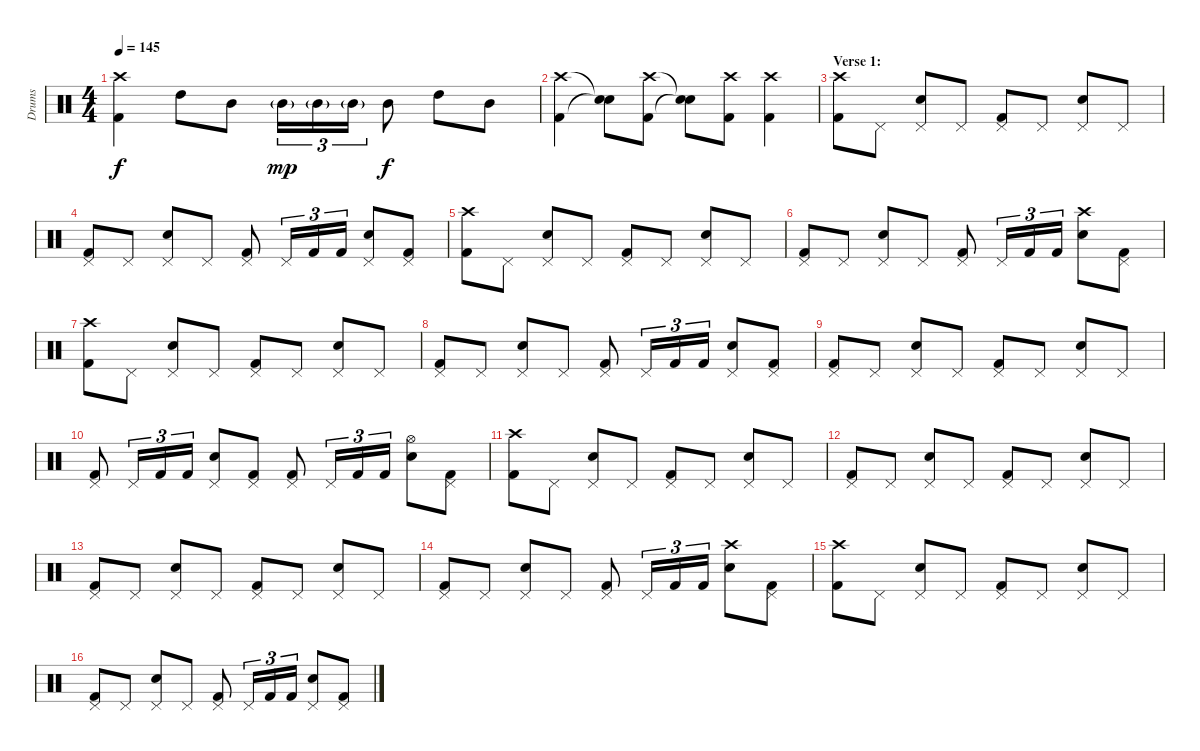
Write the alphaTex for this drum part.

\track ("Drums" "Drums") {instrument percussion}
\staff {score}
\articulation defaults
\ts (4 4)
\tempo 145
\clef neutral
\ks c
("Crash high (hit)" "Kick (hit) 2").4{dy f} "High Tom (hit)".8 "Mid Tom (hit)".8 "Mid Tom (hit)"{g}.16{tu (3 2) dy mp} "Mid Tom (hit)"{g}.16{tu (3 2)} "Mid Tom (hit)"{g}.16{tu (3 2)} "Mid Tom (hit)".8{dy f} "High Tom (hit)".8 "Mid Tom (hit)".8 |
("Crash high (hit)" "Kick (hit) 2").4 ("Snare (hit)"{t} "Snare (hit)"{t}).8 ("Crash high (hit)" "Kick (hit) 2").8 ("Snare (hit)"{t} "Snare (hit)"{t}).8 ("Crash high (hit)" "Kick (hit) 2").8 ("Crash high (hit)" "Kick (hit) 2").4 |
\section ("" "Verse 1:")
("Crash high (hit)" "Kick (hit) 2").8 "Pedal Hi-Hat (hit)".8 ("Pedal Hi-Hat (hit)" "Electric Snare (hit)").8 "Pedal Hi-Hat (hit)".8 ("Pedal Hi-Hat (hit)" "Kick (hit) 2").8 "Pedal Hi-Hat (hit)".8 ("Pedal Hi-Hat (hit)" "Electric Snare (hit)").8 "Pedal Hi-Hat (hit)".8 |
("Pedal Hi-Hat (hit)" "Kick (hit) 2").8 "Pedal Hi-Hat (hit)".8 ("Pedal Hi-Hat (hit)" "Electric Snare (hit)").8 "Pedal Hi-Hat (hit)".8 ("Pedal Hi-Hat (hit)" "Kick (hit) 2").8 "Pedal Hi-Hat (hit)".16{tu (3 2)} "Kick (hit) 2".16{tu (3 2)} "Kick (hit) 2".16{tu (3 2)} ("Pedal Hi-Hat (hit)" "Electric Snare (hit)").8 ("Pedal Hi-Hat (hit)" "Kick (hit) 2").8 |
("Crash high (hit)" "Kick (hit) 2").8 "Pedal Hi-Hat (hit)".8 ("Pedal Hi-Hat (hit)" "Electric Snare (hit)").8 "Pedal Hi-Hat (hit)".8 ("Pedal Hi-Hat (hit)" "Kick (hit) 2").8 "Pedal Hi-Hat (hit)".8 ("Pedal Hi-Hat (hit)" "Electric Snare (hit)").8 "Pedal Hi-Hat (hit)".8 |
("Pedal Hi-Hat (hit)" "Kick (hit) 2").8 "Pedal Hi-Hat (hit)".8 ("Pedal Hi-Hat (hit)" "Electric Snare (hit)").8 "Pedal Hi-Hat (hit)".8 ("Pedal Hi-Hat (hit)" "Kick (hit) 2").8 "Pedal Hi-Hat (hit)".16{tu (3 2)} "Kick (hit) 2".16{tu (3 2)} "Kick (hit) 2".16{tu (3 2)} ("Crash high (hit)" "Electric Snare (hit)").8 ("Pedal Hi-Hat (hit)" "Kick (hit) 2").8 |
("Crash high (hit)" "Kick (hit) 2").8 "Pedal Hi-Hat (hit)".8 ("Pedal Hi-Hat (hit)" "Electric Snare (hit)").8 "Pedal Hi-Hat (hit)".8 ("Pedal Hi-Hat (hit)" "Kick (hit) 2").8 "Pedal Hi-Hat (hit)".8 ("Pedal Hi-Hat (hit)" "Electric Snare (hit)").8 "Pedal Hi-Hat (hit)".8 |
("Pedal Hi-Hat (hit)" "Kick (hit) 2").8 "Pedal Hi-Hat (hit)".8 ("Pedal Hi-Hat (hit)" "Electric Snare (hit)").8 "Pedal Hi-Hat (hit)".8 ("Pedal Hi-Hat (hit)" "Kick (hit) 2").8 "Pedal Hi-Hat (hit)".16{tu (3 2)} "Kick (hit) 2".16{tu (3 2)} "Kick (hit) 2".16{tu (3 2)} ("Pedal Hi-Hat (hit)" "Electric Snare (hit)").8 ("Pedal Hi-Hat (hit)" "Kick (hit) 2").8 |
("Pedal Hi-Hat (hit)" "Kick (hit) 2").8 "Pedal Hi-Hat (hit)".8 ("Pedal Hi-Hat (hit)" "Electric Snare (hit)").8 "Pedal Hi-Hat (hit)".8 ("Pedal Hi-Hat (hit)" "Kick (hit) 2").8 "Pedal Hi-Hat (hit)".8 ("Pedal Hi-Hat (hit)" "Electric Snare (hit)").8 "Pedal Hi-Hat (hit)".8 |
("Pedal Hi-Hat (hit)" "Kick (hit) 2").8 "Pedal Hi-Hat (hit)".16{tu (3 2)} "Kick (hit) 2".16{tu (3 2)} "Kick (hit) 2".16{tu (3 2)} ("Pedal Hi-Hat (hit)" "Electric Snare (hit)").8 ("Pedal Hi-Hat (hit)" "Kick (hit) 2").8 ("Pedal Hi-Hat (hit)" "Kick (hit) 2").8 "Pedal Hi-Hat (hit)".16{tu (3 2)} "Kick (hit) 2".16{tu (3 2)} "Kick (hit) 2".16{tu (3 2)} ("Hi-Hat (open)" "Electric Snare (hit)").8 ("Pedal Hi-Hat (hit)" "Kick (hit) 2").8 |
("Crash high (hit)" "Kick (hit) 2").8 "Pedal Hi-Hat (hit)".8 ("Pedal Hi-Hat (hit)" "Electric Snare (hit)").8 "Pedal Hi-Hat (hit)".8 ("Pedal Hi-Hat (hit)" "Kick (hit) 2").8 "Pedal Hi-Hat (hit)".8 ("Pedal Hi-Hat (hit)" "Electric Snare (hit)").8 "Pedal Hi-Hat (hit)".8 |
("Pedal Hi-Hat (hit)" "Kick (hit) 2").8 "Pedal Hi-Hat (hit)".8 ("Pedal Hi-Hat (hit)" "Electric Snare (hit)").8 "Pedal Hi-Hat (hit)".8 ("Pedal Hi-Hat (hit)" "Kick (hit) 2").8 "Pedal Hi-Hat (hit)".8 ("Pedal Hi-Hat (hit)" "Electric Snare (hit)").8 "Pedal Hi-Hat (hit)".8 |
("Pedal Hi-Hat (hit)" "Kick (hit) 2").8 "Pedal Hi-Hat (hit)".8 ("Pedal Hi-Hat (hit)" "Electric Snare (hit)").8 "Pedal Hi-Hat (hit)".8 ("Pedal Hi-Hat (hit)" "Kick (hit) 2").8 "Pedal Hi-Hat (hit)".8 ("Pedal Hi-Hat (hit)" "Electric Snare (hit)").8 "Pedal Hi-Hat (hit)".8 |
("Pedal Hi-Hat (hit)" "Kick (hit) 2").8 "Pedal Hi-Hat (hit)".8 ("Pedal Hi-Hat (hit)" "Electric Snare (hit)").8 "Pedal Hi-Hat (hit)".8 ("Pedal Hi-Hat (hit)" "Kick (hit) 2").8 "Pedal Hi-Hat (hit)".16{tu (3 2)} "Kick (hit) 2".16{tu (3 2)} "Kick (hit) 2".16{tu (3 2)} ("Crash high (hit)" "Electric Snare (hit)").8 ("Pedal Hi-Hat (hit)" "Kick (hit) 2").8 |
("Crash high (hit)" "Kick (hit) 2").8 "Pedal Hi-Hat (hit)".8 ("Pedal Hi-Hat (hit)" "Electric Snare (hit)").8 "Pedal Hi-Hat (hit)".8 ("Pedal Hi-Hat (hit)" "Kick (hit) 2").8 "Pedal Hi-Hat (hit)".8 ("Pedal Hi-Hat (hit)" "Electric Snare (hit)").8 "Pedal Hi-Hat (hit)".8 |
("Pedal Hi-Hat (hit)" "Kick (hit) 2").8 "Pedal Hi-Hat (hit)".8 ("Pedal Hi-Hat (hit)" "Electric Snare (hit)").8 "Pedal Hi-Hat (hit)".8 ("Pedal Hi-Hat (hit)" "Kick (hit) 2").8 "Pedal Hi-Hat (hit)".16{tu (3 2)} "Kick (hit) 2".16{tu (3 2)} "Kick (hit) 2".16{tu (3 2)} ("Pedal Hi-Hat (hit)" "Electric Snare (hit)").8 ("Pedal Hi-Hat (hit)" "Kick (hit) 2").8
